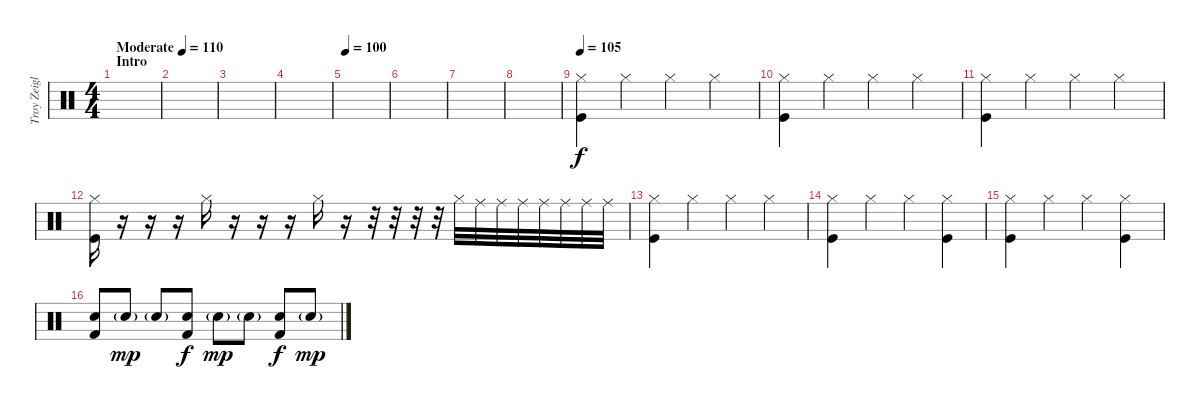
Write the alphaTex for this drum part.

\track ("Troy Zeigler (Drums)" "Troy Zeigl") {instrument percussion}
\staff {score}
\articulation defaults
\ts (4 4)
\section ("" "Intro")
\tempo (110 "Moderate")
\tempo 100
\tempo 105
\tempo (110 "Moderate")
\clef neutral
\ks c
|
|
|
|
\tempo 100
|
|
|
|
\tempo 105
("Kick (hit)" "Hi-Hat (closed)").4 "Hi-Hat (closed)".4 "Hi-Hat (closed)".4 "Hi-Hat (closed)".4 |
("Kick (hit)" "Hi-Hat (closed)").4 "Hi-Hat (closed)".4 "Hi-Hat (closed)".4 "Hi-Hat (closed)".4 |
("Kick (hit)" "Hi-Hat (closed)").4 "Hi-Hat (closed)".4 "Hi-Hat (closed)".4 "Hi-Hat (closed)".4 |
("Kick (hit)" "Hi-Hat (closed)").16 r.16 r.16 r.16 "Hi-Hat (closed)".16 r.16 r.16 r.16 "Hi-Hat (closed)".16 r.16 r.32 r.32 r.32 r.32 "Hi-Hat (closed)".32 "Ride (middle)".32 "Ride (middle)".32 "Ride (middle)".32 "Ride (middle)".32 "Ride (middle)".32 "Ride (middle)".32 "Ride (middle)".32 |
("Kick (hit)" "Hi-Hat (closed)").4 "Hi-Hat (closed)".4 "Hi-Hat (closed)".4 "Hi-Hat (closed)".4 |
("Kick (hit)" "Hi-Hat (closed)").4 "Hi-Hat (closed)".4 "Hi-Hat (closed)".4 ("Kick (hit)" "Hi-Hat (closed)").4 |
("Kick (hit)" "Hi-Hat (closed)").4 "Hi-Hat (closed)".4 "Hi-Hat (closed)".4 ("Kick (hit)" "Hi-Hat (closed)").4 |
("Kick (hit) 2" "Electric Snare (hit)").8 "Electric Snare (hit)"{g}.8{dy mp} "Electric Snare (hit)"{g}.8 ("Kick (hit) 2" "Electric Snare (hit)").8{dy f} "Electric Snare (hit)"{g}.8{dy mp} "Electric Snare (hit)"{g}.8 ("Kick (hit) 2" "Electric Snare (hit)").8{dy f} "Electric Snare (hit)"{g}.8{dy mp}
